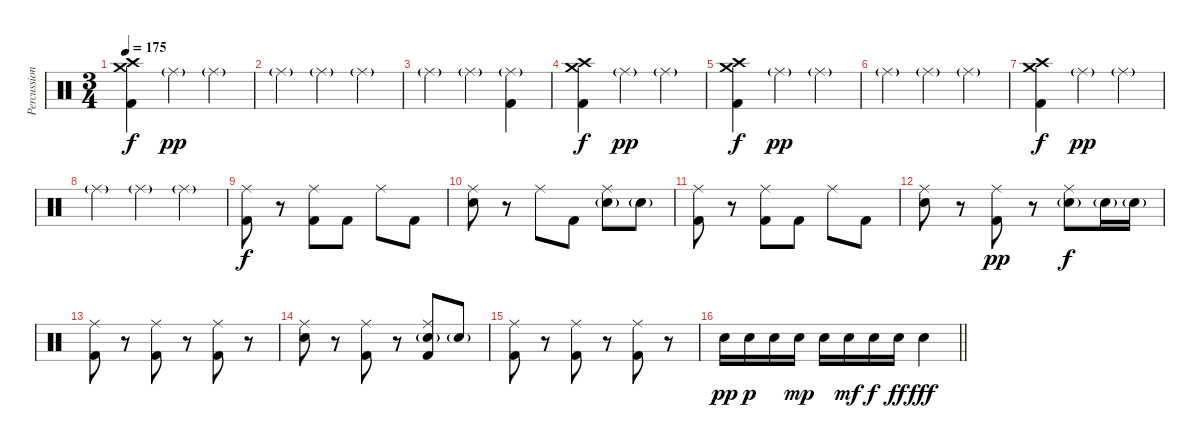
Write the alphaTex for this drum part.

\track ("Percussion" "Percussion") {instrument percussion}
\staff {score}
\articulation defaults
\ts (3 4)
\tempo 175
\clef neutral
\ks c
("Crash high (hit)" "Crash medium (hit)" "Kick (hit) 2").4{dy f} "Ride (middle)"{g}.4{dy pp} "Ride (middle)"{g}.4 |
"Ride (middle)"{g}.4 "Ride (middle)"{g}.4 "Ride (middle)"{g}.4 |
"Ride (middle)"{g}.4 "Ride (middle)"{g}.4 ("Ride (middle)"{g} "Kick (hit) 2").4 |
("Crash high (hit)" "Crash medium (hit)" "Kick (hit) 2").4{dy f} "Ride (middle)"{g}.4{dy pp} "Ride (middle)"{g}.4 |
("Crash high (hit)" "Crash medium (hit)" "Kick (hit) 2").4{dy f} "Ride (middle)"{g}.4{dy pp} "Ride (middle)"{g}.4 |
"Ride (middle)"{g}.4 "Ride (middle)"{g}.4 "Ride (middle)"{g}.4 |
("Crash high (hit)" "Crash medium (hit)" "Kick (hit) 2").4{dy f} "Ride (middle)"{g}.4{dy pp} "Ride (middle)"{g}.4 |
"Ride (middle)"{g}.4 "Ride (middle)"{g}.4 "Ride (middle)"{g}.4 |
("Ride (middle)" "Kick (hit) 2").8{dy f} r.8 ("Ride (middle)" "Kick (hit) 2").8 "Kick (hit) 2".8 "Ride (middle)".8 "Kick (hit) 2".8 |
("Ride (middle)" "Electric Snare (hit)").8 r.8 "Ride (middle)".8 "Kick (hit) 2".8 ("Ride (middle)" "Electric Snare (hit)"{g}).8 "Electric Snare (hit)"{g}.8 |
("Ride (middle)" "Kick (hit) 2").8 r.8 ("Ride (middle)" "Kick (hit) 2").8 "Kick (hit) 2".8 "Ride (middle)".8 "Kick (hit) 2".8 |
("Ride (middle)" "Electric Snare (hit)").8 r.8 ("Ride (middle)" "Kick (hit) 2").8{dy pp} r.8 ("Ride (middle)" "Electric Snare (hit)"{g}).8{dy f} "Electric Snare (hit)"{g}.16 "Electric Snare (hit)"{g}.16 |
("Ride (middle)" "Kick (hit) 2").8 r.8 ("Ride (middle)" "Kick (hit) 2").8 r.8 ("Ride (middle)" "Kick (hit) 2").8 r.8 |
("Ride (middle)" "Electric Snare (hit)").8 r.8 ("Ride (middle)" "Kick (hit) 2").8 r.8 ("Ride (middle)" "Electric Snare (hit)"{g} "Kick (hit) 2").8 "Electric Snare (hit)"{g}.8 |
("Ride (middle)" "Kick (hit) 2").8 r.8 ("Ride (middle)" "Kick (hit) 2").8 r.8 ("Ride (middle)" "Kick (hit) 2").8 r.8 |
\barLineRight lightlight "Electric Snare (hit)".16{dy pp} "Electric Snare (hit)".16{dy p} "Electric Snare (hit)".16 "Electric Snare (hit)".16{dy mp} "Electric Snare (hit)".16 "Electric Snare (hit)".16{dy mf} "Electric Snare (hit)".16{dy f} "Electric Snare (hit)".16{dy ff} "Electric Snare (hit)".4{dy fff}
